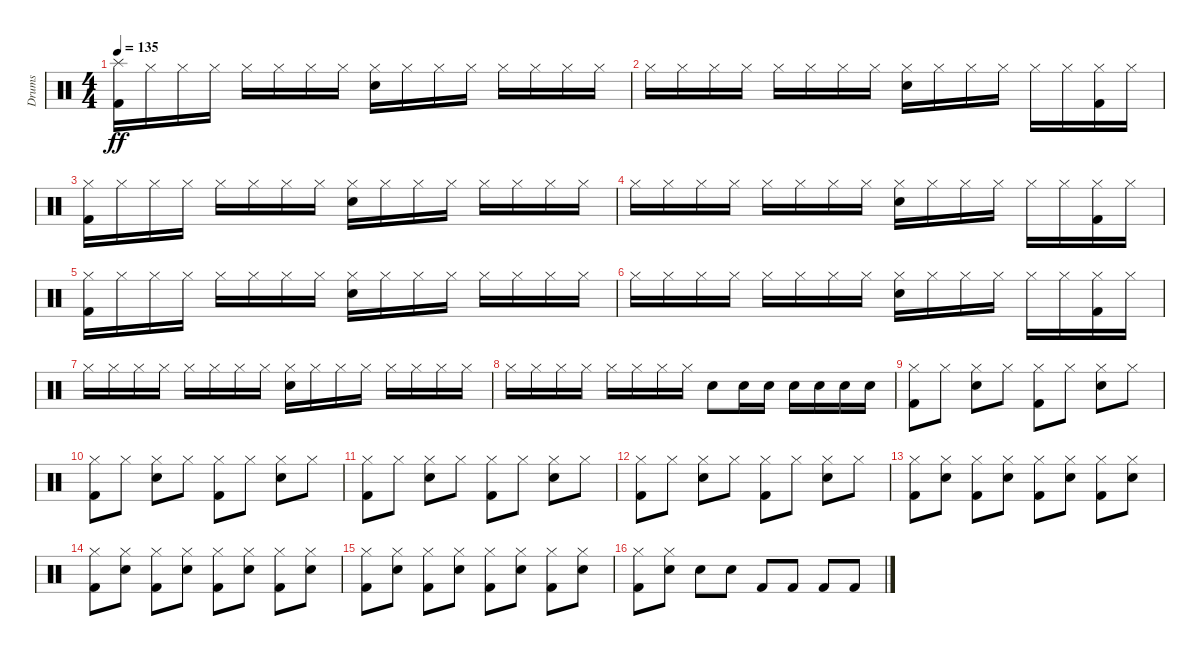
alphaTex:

\track ("Drums" "Drums") {instrument percussion}
\staff {score}
\articulation defaults
\ts (4 4)
\tempo 135
\clef neutral
\ks c
("Kick (hit) 2" "Splash (hit)").16{dy ff} "Hi-Hat (closed)".16 "Hi-Hat (closed)".16 "Hi-Hat (closed)".16 "Hi-Hat (closed)".16 "Hi-Hat (closed)".16 "Hi-Hat (closed)".16 "Hi-Hat (closed)".16 ("Electric Snare (hit)" "Hi-Hat (closed)").16 "Hi-Hat (closed)".16 "Hi-Hat (closed)".16 "Hi-Hat (closed)".16 "Hi-Hat (closed)".16 "Hi-Hat (closed)".16 "Hi-Hat (closed)".16 "Hi-Hat (closed)".16 |
"Hi-Hat (closed)".16 "Hi-Hat (closed)".16 "Hi-Hat (closed)".16 "Hi-Hat (closed)".16 "Hi-Hat (closed)".16 "Hi-Hat (closed)".16 "Hi-Hat (closed)".16 "Hi-Hat (closed)".16 ("Electric Snare (hit)" "Hi-Hat (closed)").16 "Hi-Hat (closed)".16 "Hi-Hat (closed)".16 "Hi-Hat (closed)".16 "Hi-Hat (closed)".16 "Hi-Hat (closed)".16 ("Kick (hit) 2" "Hi-Hat (closed)").16 "Hi-Hat (closed)".16 |
("Kick (hit) 2" "Hi-Hat (closed)").16 "Hi-Hat (closed)".16 "Hi-Hat (closed)".16 "Hi-Hat (closed)".16 "Hi-Hat (closed)".16 "Hi-Hat (closed)".16 "Hi-Hat (closed)".16 "Hi-Hat (closed)".16 ("Electric Snare (hit)" "Hi-Hat (closed)").16 "Hi-Hat (closed)".16 "Hi-Hat (closed)".16 "Hi-Hat (closed)".16 "Hi-Hat (closed)".16 "Hi-Hat (closed)".16 "Hi-Hat (closed)".16 "Hi-Hat (closed)".16 |
"Hi-Hat (closed)".16 "Hi-Hat (closed)".16 "Hi-Hat (closed)".16 "Hi-Hat (closed)".16 "Hi-Hat (closed)".16 "Hi-Hat (closed)".16 "Hi-Hat (closed)".16 "Hi-Hat (closed)".16 ("Electric Snare (hit)" "Hi-Hat (closed)").16 "Hi-Hat (closed)".16 "Hi-Hat (closed)".16 "Hi-Hat (closed)".16 "Hi-Hat (closed)".16 "Hi-Hat (closed)".16 ("Kick (hit) 2" "Hi-Hat (closed)").16 "Hi-Hat (closed)".16 |
("Kick (hit) 2" "Hi-Hat (closed)").16 "Hi-Hat (closed)".16 "Hi-Hat (closed)".16 "Hi-Hat (closed)".16 "Hi-Hat (closed)".16 "Hi-Hat (closed)".16 "Hi-Hat (closed)".16 "Hi-Hat (closed)".16 ("Electric Snare (hit)" "Hi-Hat (closed)").16 "Hi-Hat (closed)".16 "Hi-Hat (closed)".16 "Hi-Hat (closed)".16 "Hi-Hat (closed)".16 "Hi-Hat (closed)".16 "Hi-Hat (closed)".16 "Hi-Hat (closed)".16 |
"Hi-Hat (closed)".16 "Hi-Hat (closed)".16 "Hi-Hat (closed)".16 "Hi-Hat (closed)".16 "Hi-Hat (closed)".16 "Hi-Hat (closed)".16 "Hi-Hat (closed)".16 "Hi-Hat (closed)".16 ("Electric Snare (hit)" "Hi-Hat (closed)").16 "Hi-Hat (closed)".16 "Hi-Hat (closed)".16 "Hi-Hat (closed)".16 "Hi-Hat (closed)".16 "Hi-Hat (closed)".16 ("Kick (hit) 2" "Hi-Hat (closed)").16 "Hi-Hat (closed)".16 |
"Hi-Hat (closed)".16 "Hi-Hat (closed)".16 "Hi-Hat (closed)".16 "Hi-Hat (closed)".16 "Hi-Hat (closed)".16 "Hi-Hat (closed)".16 "Hi-Hat (closed)".16 "Hi-Hat (closed)".16 ("Electric Snare (hit)" "Hi-Hat (closed)").16 "Hi-Hat (closed)".16 "Hi-Hat (closed)".16 "Hi-Hat (closed)".16 "Hi-Hat (closed)".16 "Hi-Hat (closed)".16 "Hi-Hat (closed)".16 "Hi-Hat (closed)".16 |
"Hi-Hat (closed)".16 "Hi-Hat (closed)".16 "Hi-Hat (closed)".16 "Hi-Hat (closed)".16 "Hi-Hat (closed)".16 "Hi-Hat (closed)".16 "Hi-Hat (closed)".16 "Hi-Hat (closed)".16 "Electric Snare (hit)".8 "Electric Snare (hit)".16 "Electric Snare (hit)".16 "Electric Snare (hit)".16 "Electric Snare (hit)".16 "Electric Snare (hit)".16 "Electric Snare (hit)".16 |
("Kick (hit) 2" "Hi-Hat (closed)").8 "Hi-Hat (closed)".8 ("Electric Snare (hit)" "Hi-Hat (closed)").8 "Hi-Hat (closed)".8 ("Kick (hit) 2" "Hi-Hat (closed)").8 "Hi-Hat (closed)".8 ("Electric Snare (hit)" "Hi-Hat (closed)").8 "Hi-Hat (closed)".8 |
("Kick (hit) 2" "Hi-Hat (closed)").8 "Hi-Hat (closed)".8 ("Electric Snare (hit)" "Hi-Hat (closed)").8 "Hi-Hat (closed)".8 ("Kick (hit) 2" "Hi-Hat (closed)").8 "Hi-Hat (closed)".8 ("Electric Snare (hit)" "Hi-Hat (closed)").8 "Hi-Hat (closed)".8 |
("Kick (hit) 2" "Hi-Hat (closed)").8 "Hi-Hat (closed)".8 ("Electric Snare (hit)" "Hi-Hat (closed)").8 "Hi-Hat (closed)".8 ("Kick (hit) 2" "Hi-Hat (closed)").8 "Hi-Hat (closed)".8 ("Electric Snare (hit)" "Hi-Hat (closed)").8 "Hi-Hat (closed)".8 |
("Kick (hit) 2" "Hi-Hat (closed)").8 "Hi-Hat (closed)".8 ("Electric Snare (hit)" "Hi-Hat (closed)").8 "Hi-Hat (closed)".8 ("Kick (hit) 2" "Hi-Hat (closed)").8 "Hi-Hat (closed)".8 ("Electric Snare (hit)" "Hi-Hat (closed)").8 "Hi-Hat (closed)".8 |
("Kick (hit) 2" "Hi-Hat (closed)").8 ("Electric Snare (hit)" "Hi-Hat (closed)").8 ("Kick (hit) 2" "Hi-Hat (closed)").8 ("Electric Snare (hit)" "Hi-Hat (closed)").8 ("Kick (hit) 2" "Hi-Hat (closed)").8 ("Electric Snare (hit)" "Hi-Hat (closed)").8 ("Kick (hit) 2" "Hi-Hat (closed)").8 ("Electric Snare (hit)" "Hi-Hat (closed)").8 |
("Kick (hit) 2" "Hi-Hat (closed)").8 ("Electric Snare (hit)" "Hi-Hat (closed)").8 ("Kick (hit) 2" "Hi-Hat (closed)").8 ("Electric Snare (hit)" "Hi-Hat (closed)").8 ("Kick (hit) 2" "Hi-Hat (closed)").8 ("Electric Snare (hit)" "Hi-Hat (closed)").8 ("Kick (hit) 2" "Hi-Hat (closed)").8 ("Electric Snare (hit)" "Hi-Hat (closed)").8 |
("Kick (hit) 2" "Hi-Hat (closed)").8 ("Electric Snare (hit)" "Hi-Hat (closed)").8 ("Kick (hit) 2" "Hi-Hat (closed)").8 ("Electric Snare (hit)" "Hi-Hat (closed)").8 ("Kick (hit) 2" "Hi-Hat (closed)").8 ("Electric Snare (hit)" "Hi-Hat (closed)").8 ("Kick (hit) 2" "Hi-Hat (closed)").8 ("Electric Snare (hit)" "Hi-Hat (closed)").8 |
("Kick (hit) 2" "Hi-Hat (closed)").8 ("Electric Snare (hit)" "Hi-Hat (closed)").8 "Electric Snare (hit)".8 "Electric Snare (hit)".8 "Kick (hit) 2".8 "Kick (hit) 2".8 "Kick (hit) 2".8 "Kick (hit) 2".8
